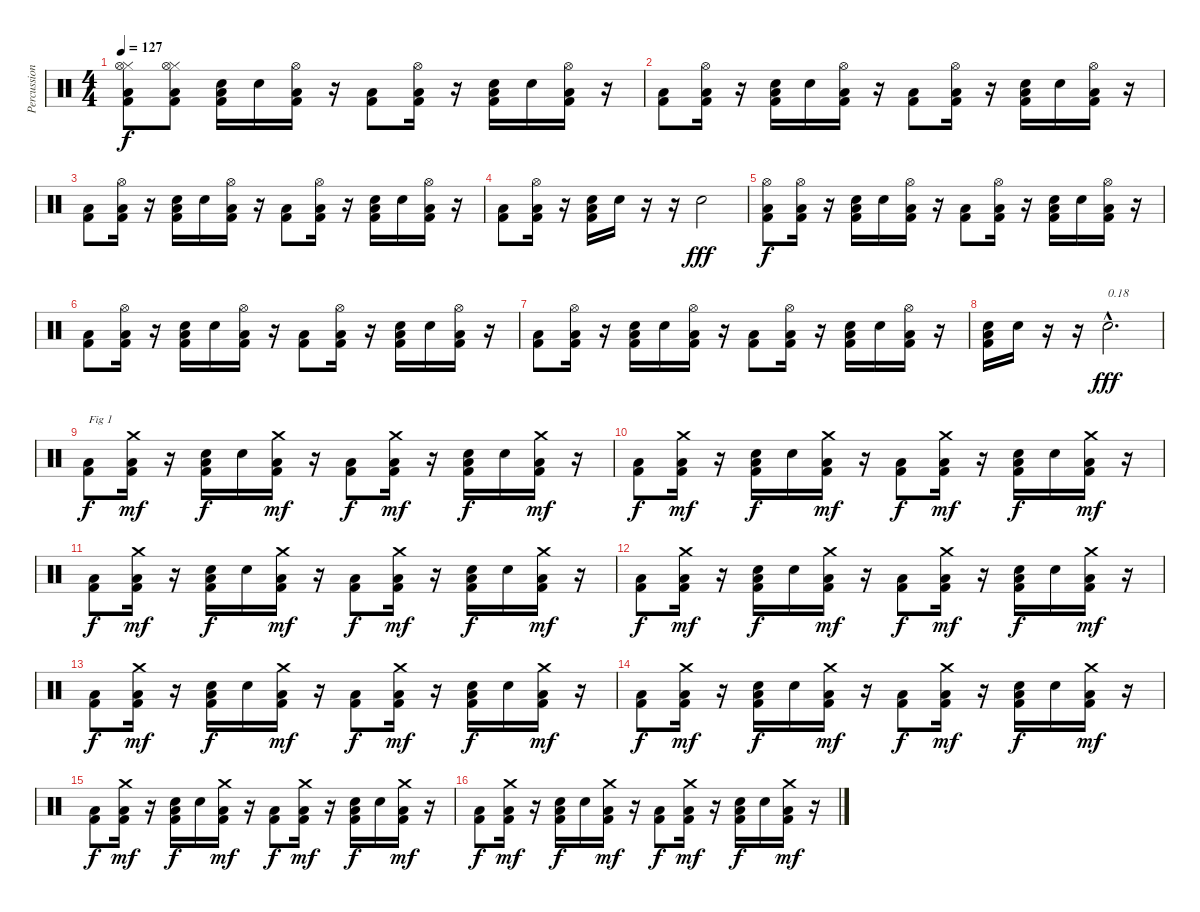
\track ("Percussions" "Percussion") {instrument percussion}
\staff {score}
\articulation defaults
\ts (4 4)
\tempo 127
\clef neutral
\ks c
("Low Floor Tom (hit)" "Kick (hit) 2" "Hi-Hat (closed)" "Hi-Hat (open)").8{dy f} ("Low Floor Tom (hit)" "Kick (hit) 2" "Hi-Hat (closed)" "Hi-Hat (open)").8 ("Low Floor Tom (hit)" "Kick (hit) 2" "Electric Snare (hit)").16 "Electric Snare (hit)".16 ("Low Floor Tom (hit)" "Kick (hit) 2" "Hi-Hat (open)").16 r.16 ("Low Floor Tom (hit)" "Kick (hit) 2").8 ("Low Floor Tom (hit)" "Kick (hit) 2" "Hi-Hat (open)").16 r.16 ("Low Floor Tom (hit)" "Kick (hit) 2" "Electric Snare (hit)").16 "Electric Snare (hit)".16 ("Low Floor Tom (hit)" "Kick (hit) 2" "Hi-Hat (open)").16 r.16 |
("Low Floor Tom (hit)" "Kick (hit) 2").8 ("Low Floor Tom (hit)" "Kick (hit) 2" "Hi-Hat (open)").16 r.16 ("Low Floor Tom (hit)" "Kick (hit) 2" "Electric Snare (hit)").16 "Electric Snare (hit)".16 ("Low Floor Tom (hit)" "Kick (hit) 2" "Hi-Hat (open)").16 r.16 ("Low Floor Tom (hit)" "Kick (hit) 2").8 ("Low Floor Tom (hit)" "Kick (hit) 2" "Hi-Hat (open)").16 r.16 ("Low Floor Tom (hit)" "Kick (hit) 2" "Electric Snare (hit)").16 "Electric Snare (hit)".16 ("Low Floor Tom (hit)" "Kick (hit) 2" "Hi-Hat (open)").16 r.16 |
("Low Floor Tom (hit)" "Kick (hit) 2").8 ("Low Floor Tom (hit)" "Kick (hit) 2" "Hi-Hat (open)").16 r.16 ("Low Floor Tom (hit)" "Kick (hit) 2" "Electric Snare (hit)").16 "Electric Snare (hit)".16 ("Low Floor Tom (hit)" "Kick (hit) 2" "Hi-Hat (open)").16 r.16 ("Low Floor Tom (hit)" "Kick (hit) 2").8 ("Low Floor Tom (hit)" "Kick (hit) 2" "Hi-Hat (open)").16 r.16 ("Low Floor Tom (hit)" "Kick (hit) 2" "Electric Snare (hit)").16 "Electric Snare (hit)".16 ("Low Floor Tom (hit)" "Kick (hit) 2" "Hi-Hat (open)").16 r.16 |
("Low Floor Tom (hit)" "Kick (hit) 2").8 ("Low Floor Tom (hit)" "Kick (hit) 2" "Hi-Hat (open)").16 r.16 ("Low Floor Tom (hit)" "Kick (hit) 2" "Electric Snare (hit)").16 "Electric Snare (hit)".16 r.16 r.16 "Electric Snare (hit)".2{dy fff} |
("Low Floor Tom (hit)" "Kick (hit) 2" "Hi-Hat (open)").8{dy f} ("Low Floor Tom (hit)" "Kick (hit) 2" "Hi-Hat (open)").16 r.16 ("Low Floor Tom (hit)" "Kick (hit) 2" "Electric Snare (hit)").16 "Electric Snare (hit)".16 ("Low Floor Tom (hit)" "Kick (hit) 2" "Hi-Hat (open)").16 r.16 ("Low Floor Tom (hit)" "Kick (hit) 2").8 ("Low Floor Tom (hit)" "Kick (hit) 2" "Hi-Hat (open)").16 r.16 ("Low Floor Tom (hit)" "Kick (hit) 2" "Electric Snare (hit)").16 "Electric Snare (hit)".16 ("Low Floor Tom (hit)" "Kick (hit) 2" "Hi-Hat (open)").16 r.16 |
("Low Floor Tom (hit)" "Kick (hit) 2").8 ("Low Floor Tom (hit)" "Kick (hit) 2" "Hi-Hat (open)").16 r.16 ("Low Floor Tom (hit)" "Kick (hit) 2" "Electric Snare (hit)").16 "Electric Snare (hit)".16 ("Low Floor Tom (hit)" "Kick (hit) 2" "Hi-Hat (open)").16 r.16 ("Low Floor Tom (hit)" "Kick (hit) 2").8 ("Low Floor Tom (hit)" "Kick (hit) 2" "Hi-Hat (open)").16 r.16 ("Low Floor Tom (hit)" "Kick (hit) 2" "Electric Snare (hit)").16 "Electric Snare (hit)".16 ("Low Floor Tom (hit)" "Kick (hit) 2" "Hi-Hat (open)").16 r.16 |
("Low Floor Tom (hit)" "Kick (hit) 2").8 ("Low Floor Tom (hit)" "Kick (hit) 2" "Hi-Hat (open)").16 r.16 ("Low Floor Tom (hit)" "Kick (hit) 2" "Electric Snare (hit)").16 "Electric Snare (hit)".16 ("Low Floor Tom (hit)" "Kick (hit) 2" "Hi-Hat (open)").16 r.16 ("Low Floor Tom (hit)" "Kick (hit) 2").8 ("Low Floor Tom (hit)" "Kick (hit) 2" "Hi-Hat (open)").16 r.16 ("Low Floor Tom (hit)" "Kick (hit) 2" "Electric Snare (hit)").16 "Electric Snare (hit)".16 ("Low Floor Tom (hit)" "Kick (hit) 2" "Hi-Hat (open)").16 r.16 |
("Low Floor Tom (hit)" "Kick (hit) 2" "Electric Snare (hit)").16 "Electric Snare (hit)".16 r.16 r.16 "Electric Snare (hit)"{hac}.2{d txt "0.18" dy fff} |
("Low Floor Tom (hit)" "Kick (hit) 2").8{txt "Fig 1" dy f} ("Low Floor Tom (hit)" "Kick (hit) 2" "Crash medium (hit)").16{dy mf} r.16 ("Low Floor Tom (hit)" "Kick (hit) 2" "Electric Snare (hit)").16{dy f} "Electric Snare (hit)".16 ("Low Floor Tom (hit)" "Kick (hit) 2" "Crash medium (hit)").16{dy mf} r.16 ("Low Floor Tom (hit)" "Kick (hit) 2").8{dy f} ("Low Floor Tom (hit)" "Kick (hit) 2" "Crash medium (hit)").16{dy mf} r.16 ("Low Floor Tom (hit)" "Kick (hit) 2" "Electric Snare (hit)").16{dy f} "Electric Snare (hit)".16 ("Low Floor Tom (hit)" "Kick (hit) 2" "Crash medium (hit)").16{dy mf} r.16 |
("Low Floor Tom (hit)" "Kick (hit) 2").8{dy f} ("Low Floor Tom (hit)" "Kick (hit) 2" "Crash medium (hit)").16{dy mf} r.16 ("Low Floor Tom (hit)" "Kick (hit) 2" "Electric Snare (hit)").16{dy f} "Electric Snare (hit)".16 ("Low Floor Tom (hit)" "Kick (hit) 2" "Crash medium (hit)").16{dy mf} r.16 ("Low Floor Tom (hit)" "Kick (hit) 2").8{dy f} ("Low Floor Tom (hit)" "Kick (hit) 2" "Crash medium (hit)").16{dy mf} r.16 ("Low Floor Tom (hit)" "Kick (hit) 2" "Electric Snare (hit)").16{dy f} "Electric Snare (hit)".16 ("Low Floor Tom (hit)" "Kick (hit) 2" "Crash medium (hit)").16{dy mf} r.16 |
("Low Floor Tom (hit)" "Kick (hit) 2").8{dy f} ("Low Floor Tom (hit)" "Kick (hit) 2" "Crash medium (hit)").16{dy mf} r.16 ("Low Floor Tom (hit)" "Kick (hit) 2" "Electric Snare (hit)").16{dy f} "Electric Snare (hit)".16 ("Low Floor Tom (hit)" "Kick (hit) 2" "Crash medium (hit)").16{dy mf} r.16 ("Low Floor Tom (hit)" "Kick (hit) 2").8{dy f} ("Low Floor Tom (hit)" "Kick (hit) 2" "Crash medium (hit)").16{dy mf} r.16 ("Low Floor Tom (hit)" "Kick (hit) 2" "Electric Snare (hit)").16{dy f} "Electric Snare (hit)".16 ("Low Floor Tom (hit)" "Kick (hit) 2" "Crash medium (hit)").16{dy mf} r.16 |
("Low Floor Tom (hit)" "Kick (hit) 2").8{dy f} ("Low Floor Tom (hit)" "Kick (hit) 2" "Crash medium (hit)").16{dy mf} r.16 ("Low Floor Tom (hit)" "Kick (hit) 2" "Electric Snare (hit)").16{dy f} "Electric Snare (hit)".16 ("Low Floor Tom (hit)" "Kick (hit) 2" "Crash medium (hit)").16{dy mf} r.16 ("Low Floor Tom (hit)" "Kick (hit) 2").8{dy f} ("Low Floor Tom (hit)" "Kick (hit) 2" "Crash medium (hit)").16{dy mf} r.16 ("Low Floor Tom (hit)" "Kick (hit) 2" "Electric Snare (hit)").16{dy f} "Electric Snare (hit)".16 ("Low Floor Tom (hit)" "Kick (hit) 2" "Crash medium (hit)").16{dy mf} r.16 |
("Low Floor Tom (hit)" "Kick (hit) 2").8{dy f} ("Low Floor Tom (hit)" "Kick (hit) 2" "Crash medium (hit)").16{dy mf} r.16 ("Low Floor Tom (hit)" "Kick (hit) 2" "Electric Snare (hit)").16{dy f} "Electric Snare (hit)".16 ("Low Floor Tom (hit)" "Kick (hit) 2" "Crash medium (hit)").16{dy mf} r.16 ("Low Floor Tom (hit)" "Kick (hit) 2").8{dy f} ("Low Floor Tom (hit)" "Kick (hit) 2" "Crash medium (hit)").16{dy mf} r.16 ("Low Floor Tom (hit)" "Kick (hit) 2" "Electric Snare (hit)").16{dy f} "Electric Snare (hit)".16 ("Low Floor Tom (hit)" "Kick (hit) 2" "Crash medium (hit)").16{dy mf} r.16 |
("Low Floor Tom (hit)" "Kick (hit) 2").8{dy f} ("Low Floor Tom (hit)" "Kick (hit) 2" "Crash medium (hit)").16{dy mf} r.16 ("Low Floor Tom (hit)" "Kick (hit) 2" "Electric Snare (hit)").16{dy f} "Electric Snare (hit)".16 ("Low Floor Tom (hit)" "Kick (hit) 2" "Crash medium (hit)").16{dy mf} r.16 ("Low Floor Tom (hit)" "Kick (hit) 2").8{dy f} ("Low Floor Tom (hit)" "Kick (hit) 2" "Crash medium (hit)").16{dy mf} r.16 ("Low Floor Tom (hit)" "Kick (hit) 2" "Electric Snare (hit)").16{dy f} "Electric Snare (hit)".16 ("Low Floor Tom (hit)" "Kick (hit) 2" "Crash medium (hit)").16{dy mf} r.16 |
("Low Floor Tom (hit)" "Kick (hit) 2").8{dy f} ("Low Floor Tom (hit)" "Kick (hit) 2" "Crash medium (hit)").16{dy mf} r.16 ("Low Floor Tom (hit)" "Kick (hit) 2" "Electric Snare (hit)").16{dy f} "Electric Snare (hit)".16 ("Low Floor Tom (hit)" "Kick (hit) 2" "Crash medium (hit)").16{dy mf} r.16 ("Low Floor Tom (hit)" "Kick (hit) 2").8{dy f} ("Low Floor Tom (hit)" "Kick (hit) 2" "Crash medium (hit)").16{dy mf} r.16 ("Low Floor Tom (hit)" "Kick (hit) 2" "Electric Snare (hit)").16{dy f} "Electric Snare (hit)".16 ("Low Floor Tom (hit)" "Kick (hit) 2" "Crash medium (hit)").16{dy mf} r.16 |
("Low Floor Tom (hit)" "Kick (hit) 2").8{dy f} ("Low Floor Tom (hit)" "Kick (hit) 2" "Crash medium (hit)").16{dy mf} r.16 ("Low Floor Tom (hit)" "Kick (hit) 2" "Electric Snare (hit)").16{dy f} "Electric Snare (hit)".16 ("Low Floor Tom (hit)" "Kick (hit) 2" "Crash medium (hit)").16{dy mf} r.16 ("Low Floor Tom (hit)" "Kick (hit) 2").8{dy f} ("Low Floor Tom (hit)" "Kick (hit) 2" "Crash medium (hit)").16{dy mf} r.16 ("Low Floor Tom (hit)" "Kick (hit) 2" "Electric Snare (hit)").16{dy f} "Electric Snare (hit)".16 ("Low Floor Tom (hit)" "Kick (hit) 2" "Crash medium (hit)").16{dy mf} r.16
